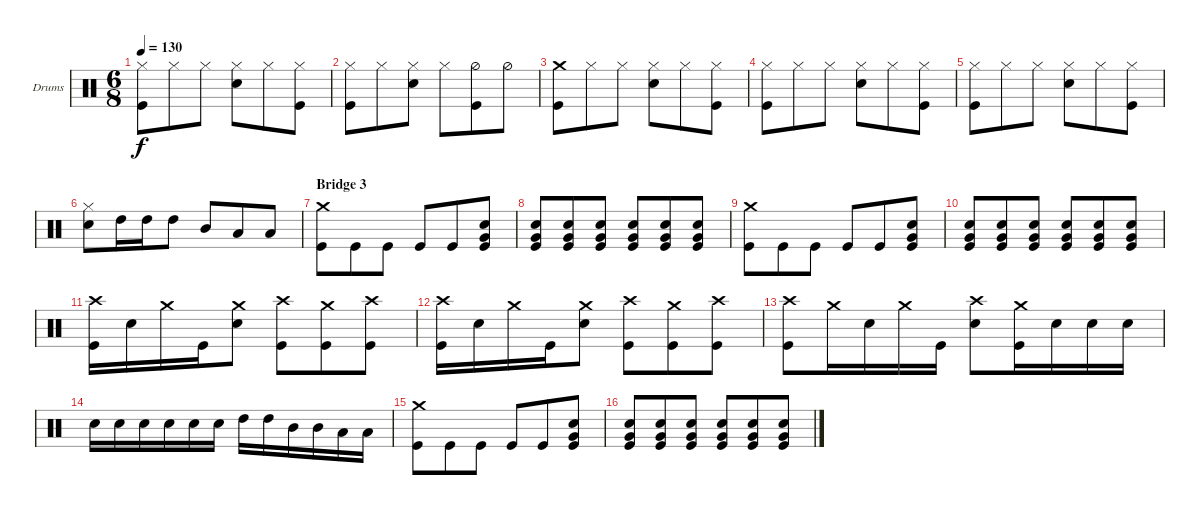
\bracketExtendMode groupsimilarinstruments
\firstSystemTrackNameOrientation horizontal
\otherSystemsTrackNameOrientation horizontal
\track ("drums (Anton Zulganov)" "Drums") {instrument percussion}
\staff {score}
\articulation defaults
\ts (6 8)
\tempo 130
\clef neutral
\ks aminor
("Kick (hit)" "Hi-Hat (closed)").8{dy f} "Hi-Hat (closed)".8 "Hi-Hat (closed)".8 ("Snare (hit) 2" "Hi-Hat (closed)").8 "Hi-Hat (closed)".8 ("Kick (hit)" "Hi-Hat (closed)").8 |
("Kick (hit)" "Hi-Hat (closed)").8 "Hi-Hat (closed)".8 ("Snare (hit) 2" "Hi-Hat (closed)").8 "Hi-Hat (closed)".8 ("Kick (hit)" "Hi-Hat (half)").8 "Hi-Hat (half)".8 |
("Kick (hit)" "Crash medium (hit)").8 "Hi-Hat (closed)".8 "Hi-Hat (closed)".8 ("Snare (hit) 2" "Hi-Hat (closed)").8 "Hi-Hat (closed)".8 ("Kick (hit)" "Hi-Hat (closed)").8 |
("Kick (hit)" "Hi-Hat (closed)").8 "Hi-Hat (closed)".8 "Hi-Hat (closed)".8 ("Snare (hit) 2" "Hi-Hat (closed)").8 "Hi-Hat (closed)".8 ("Kick (hit)" "Hi-Hat (closed)").8 |
("Kick (hit)" "Hi-Hat (closed)").8 "Hi-Hat (closed)".8 "Hi-Hat (closed)".8 ("Snare (hit) 2" "Hi-Hat (closed)").8 "Hi-Hat (closed)".8 ("Kick (hit)" "Hi-Hat (closed)").8 |
("Snare (hit) 2" "Hi-Hat (closed)").8 "High Tom (hit)".16 "High Tom (hit)".16 "High Tom (hit)".8 "Mid Tom (hit)".8 "Low Tom (hit)".8 "Low Tom (hit)".8 |
\section ("" "Bridge 3")
("Crash medium (hit)" "Kick (hit)").8 "Kick (hit)".8 "Kick (hit)".8 "Kick (hit)".8 "Kick (hit)".8 ("Snare (hit) 2" "Kick (hit)" "Very Low Tom (hit)").8 |
("Snare (hit) 2" "Kick (hit)" "Very Low Tom (hit)").8 ("Snare (hit) 2" "Kick (hit)" "Very Low Tom (hit)").8 ("Snare (hit) 2" "Kick (hit)" "Very Low Tom (hit)").8 ("Snare (hit) 2" "Kick (hit)" "Very Low Tom (hit)").8 ("Snare (hit) 2" "Kick (hit)" "Very Low Tom (hit)").8 ("Snare (hit) 2" "Kick (hit)" "Very Low Tom (hit)").8 |
("Crash medium (hit)" "Kick (hit)").8 "Kick (hit)".8 "Kick (hit)".8 "Kick (hit)".8 "Kick (hit)".8 ("Snare (hit) 2" "Kick (hit)" "Very Low Tom (hit)").8 |
("Snare (hit) 2" "Kick (hit)" "Very Low Tom (hit)").8 ("Snare (hit) 2" "Kick (hit)" "Very Low Tom (hit)").8 ("Snare (hit) 2" "Kick (hit)" "Very Low Tom (hit)").8 ("Snare (hit) 2" "Kick (hit)" "Very Low Tom (hit)").8 ("Snare (hit) 2" "Kick (hit)" "Very Low Tom (hit)").8 ("Snare (hit) 2" "Kick (hit)" "Very Low Tom (hit)").8 |
("Kick (hit)" "Crash high (hit)").16 "Snare (hit) 2".16 "Crash medium (hit)".16 "Kick (hit)".16 ("Snare (hit) 2" "Crash medium (hit)").8 ("Kick (hit)" "Crash high (hit)").8 ("Kick (hit)" "Crash medium (hit)").8 ("Kick (hit)" "Crash high (hit)").8 |
("Kick (hit)" "Crash high (hit)").16 "Snare (hit) 2".16 "Crash medium (hit)".16 "Kick (hit)".16 ("Snare (hit) 2" "Crash medium (hit)").8 ("Kick (hit)" "Crash high (hit)").8 ("Kick (hit)" "Crash medium (hit)").8 ("Kick (hit)" "Crash high (hit)").8 |
("Kick (hit)" "Crash high (hit)").8 "Crash medium (hit)".16 "Snare (hit) 2".16 "Crash medium (hit)".16 "Kick (hit)".16 ("Crash high (hit)" "Snare (hit) 2").8 ("Kick (hit)" "Crash medium (hit)").16 "Snare (hit) 2".16 "Snare (hit) 2".16 "Snare (hit) 2".16 |
"Snare (hit) 2".16 "Snare (hit) 2".16 "Snare (hit) 2".16 "Snare (hit) 2".16 "Snare (hit) 2".16 "Snare (hit) 2".16 "High Tom (hit)".16 "High Tom (hit)".16 "Mid Tom (hit)".16 "Mid Tom (hit)".16 "Low Tom (hit)".16 "Low Tom (hit)".16 |
("Crash medium (hit)" "Kick (hit)").8 "Kick (hit)".8 "Kick (hit)".8 "Kick (hit)".8 "Kick (hit)".8 ("Snare (hit) 2" "Kick (hit)" "Very Low Tom (hit)").8 |
("Snare (hit) 2" "Kick (hit)" "Very Low Tom (hit)").8 ("Snare (hit) 2" "Kick (hit)" "Very Low Tom (hit)").8 ("Snare (hit) 2" "Kick (hit)" "Very Low Tom (hit)").8 ("Snare (hit) 2" "Kick (hit)" "Very Low Tom (hit)").8 ("Snare (hit) 2" "Kick (hit)" "Very Low Tom (hit)").8 ("Snare (hit) 2" "Kick (hit)" "Very Low Tom (hit)").8
